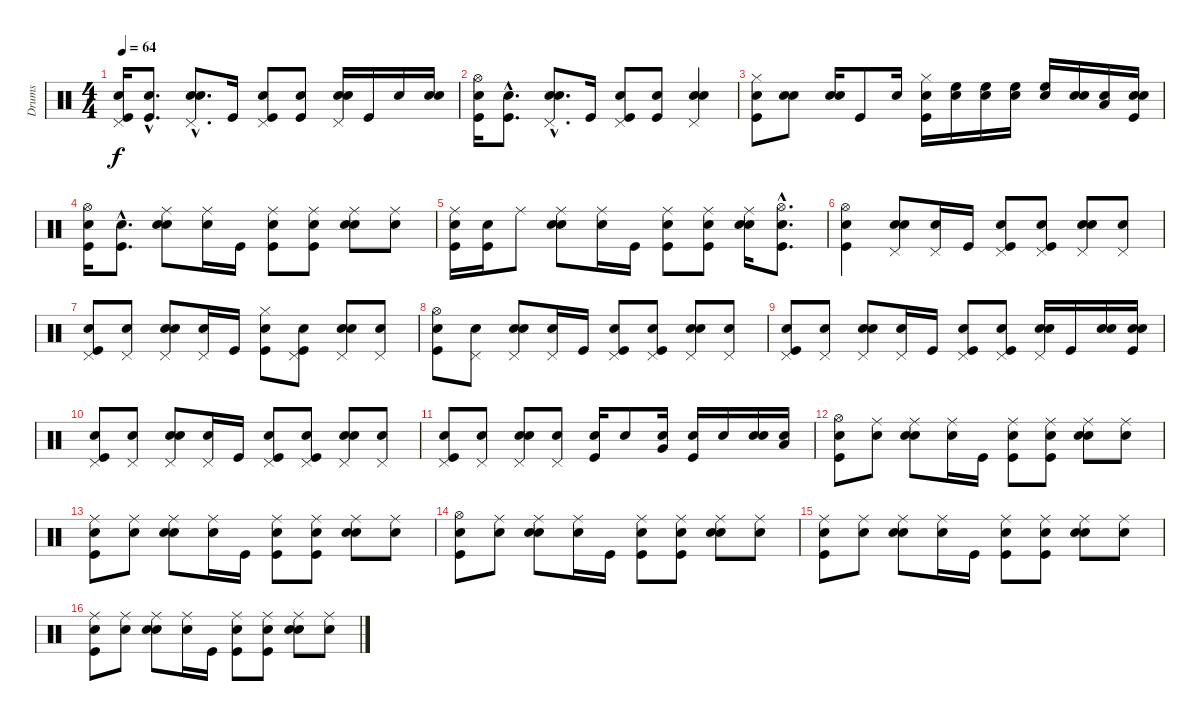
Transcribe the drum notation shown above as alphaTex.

\track ("Drums" "Drums") {instrument percussion}
\staff {score}
\articulation defaults
\ts (4 4)
\tempo 64
\clef neutral
\ks c
("Snare (hit)" "Kick (hit)" "Pedal Hi-Hat (hit)").16{dy f} ("Snare (hit)"{hac} "Kick (hit)"{hac}).8{d} ("Snare (hit)"{hac} "Pedal Hi-Hat (hit)"{hac} "Snare (hit) 2"{hac}).8{d} "Kick (hit)".16 ("Snare (hit)" "Kick (hit)" "Pedal Hi-Hat (hit)").8 ("Snare (hit)" "Kick (hit)").8 ("Snare (hit)" "Pedal Hi-Hat (hit)" "Snare (hit) 2").16 "Kick (hit)".16 "Electric Snare (hit)".16 ("Snare (hit)" "Electric Snare (hit)").16 |
("Snare (hit)" "Kick (hit)" "Hi-Hat (open)").16 ("Snare (hit)"{hac} "Kick (hit)"{hac}).8{d} ("Snare (hit)"{hac} "Pedal Hi-Hat (hit)"{hac} "Snare (hit) 2"{hac}).8{d} "Kick (hit)".16 ("Snare (hit)" "Kick (hit)" "Pedal Hi-Hat (hit)").8 ("Snare (hit)" "Kick (hit)").8 ("Snare (hit)" "Pedal Hi-Hat (hit)" "Snare (hit) 2").4 |
("Snare (hit)" "Kick (hit)" "Hi-Hat (closed)").8 ("Snare (hit)" "Snare (hit) 2").8 ("Snare (hit)" "Snare (hit) 2").16 "Kick (hit)".8 "Electric Snare (hit)".16 ("Snare (hit)" "Kick (hit)" "Hi-Hat (closed)").16 ("Snare (hit)" "High Floor Tom (hit)").16 ("Snare (hit)" "High Floor Tom (hit)").16 ("Snare (hit)" "High Floor Tom (hit)").16 ("Snare (hit)" "High Floor Tom (hit)").16 ("Snare (hit)" "Electric Snare (hit)").16 ("Snare (hit)" "Low Tom (hit)").16 ("Snare (hit)" "Snare (hit) 2" "Kick (hit)").16 |
("Snare (hit)" "Kick (hit)" "Hi-Hat (open)").16 ("Snare (hit)"{hac} "Kick (hit)"{hac}).8{d} ("Snare (hit)" "Ride (middle)" "Snare (hit) 2").8 ("Snare (hit)" "Ride (middle)").16 "Kick (hit)".16 ("Snare (hit)" "Kick (hit)" "Ride (middle)").8 ("Snare (hit)" "Kick (hit)" "Ride (middle)").8 ("Snare (hit)" "Ride (middle)" "Snare (hit) 2").8 ("Snare (hit)" "Ride (middle)").8 |
("Snare (hit)" "Kick (hit)" "Ride (middle)").16 ("Snare (hit)" "Kick (hit)").16 "Ride (middle)".8 ("Snare (hit)" "Ride (middle)" "Snare (hit) 2").8 ("Snare (hit)" "Ride (middle)").16 "Kick (hit)".16 ("Snare (hit)" "Kick (hit)" "Ride (middle)").8 ("Snare (hit)" "Kick (hit)" "Ride (middle)").8 ("Snare (hit)" "Ride (middle)" "Snare (hit) 2").16 ("Snare (hit)"{hac} "Kick (hit)"{hac} "Hi-Hat (open)"{hac}).8{d} |
("Snare (hit)" "Kick (hit)" "Hi-Hat (open)").4 ("Snare (hit)" "Pedal Hi-Hat (hit)" "Snare (hit) 2").8 ("Snare (hit)" "Pedal Hi-Hat (hit)").16 "Kick (hit)".16 ("Snare (hit)" "Kick (hit)" "Pedal Hi-Hat (hit)").8 ("Snare (hit)" "Kick (hit)" "Pedal Hi-Hat (hit)").8 ("Snare (hit)" "Pedal Hi-Hat (hit)" "Snare (hit) 2").8 ("Snare (hit)" "Pedal Hi-Hat (hit)").8 |
("Snare (hit)" "Kick (hit)" "Pedal Hi-Hat (hit)").8 ("Snare (hit)" "Pedal Hi-Hat (hit)").8 ("Snare (hit)" "Pedal Hi-Hat (hit)" "Snare (hit) 2").8 ("Snare (hit)" "Pedal Hi-Hat (hit)").16 "Kick (hit)".16 ("Snare (hit)" "Kick (hit)" "Hi-Hat (closed)").8 ("Snare (hit)" "Kick (hit)" "Pedal Hi-Hat (hit)").8 ("Snare (hit)" "Pedal Hi-Hat (hit)" "Snare (hit) 2").8 ("Snare (hit)" "Pedal Hi-Hat (hit)").8 |
("Snare (hit)" "Kick (hit)" "Hi-Hat (open)").8 ("Snare (hit)" "Pedal Hi-Hat (hit)").8 ("Snare (hit)" "Pedal Hi-Hat (hit)" "Snare (hit) 2").8 ("Snare (hit)" "Pedal Hi-Hat (hit)").16 "Kick (hit)".16 ("Snare (hit)" "Kick (hit)" "Pedal Hi-Hat (hit)").8 ("Snare (hit)" "Kick (hit)" "Pedal Hi-Hat (hit)").8 ("Snare (hit)" "Pedal Hi-Hat (hit)" "Snare (hit) 2").8 ("Snare (hit)" "Pedal Hi-Hat (hit)").8 |
("Snare (hit)" "Kick (hit)" "Pedal Hi-Hat (hit)").8 ("Snare (hit)" "Pedal Hi-Hat (hit)").8 ("Snare (hit)" "Pedal Hi-Hat (hit)" "Snare (hit) 2").8 ("Snare (hit)" "Pedal Hi-Hat (hit)").16 "Kick (hit)".16 ("Snare (hit)" "Kick (hit)" "Pedal Hi-Hat (hit)").8 ("Snare (hit)" "Kick (hit)" "Pedal Hi-Hat (hit)").8 ("Snare (hit)" "Pedal Hi-Hat (hit)" "Snare (hit) 2").16 "Kick (hit)".16 ("Snare (hit)" "Snare (hit) 2").16 ("Snare (hit)" "Kick (hit)" "Snare (hit) 2").16 |
("Snare (hit)" "Kick (hit)" "Pedal Hi-Hat (hit)").8 ("Snare (hit)" "Pedal Hi-Hat (hit)").8 ("Snare (hit)" "Pedal Hi-Hat (hit)" "Snare (hit) 2").8 ("Snare (hit)" "Pedal Hi-Hat (hit)").16 "Kick (hit)".16 ("Snare (hit)" "Kick (hit)" "Pedal Hi-Hat (hit)").8 ("Snare (hit)" "Kick (hit)" "Pedal Hi-Hat (hit)").8 ("Snare (hit)" "Pedal Hi-Hat (hit)" "Snare (hit) 2").8 ("Snare (hit)" "Pedal Hi-Hat (hit)").8 |
("Snare (hit)" "Kick (hit)" "Pedal Hi-Hat (hit)").8 ("Snare (hit)" "Pedal Hi-Hat (hit)").8 ("Snare (hit)" "Pedal Hi-Hat (hit)" "Snare (hit) 2").8 ("Snare (hit)" "Pedal Hi-Hat (hit)").8 ("Snare (hit)" "Kick (hit)").16 "Snare (hit) 2".8 ("Snare (hit)" "Very Low Tom (hit)").16 ("Snare (hit)" "Kick (hit)").16 "Electric Snare (hit)".16 ("Snare (hit)" "Electric Snare (hit)").16 ("Snare (hit)" "Low Floor Tom (hit)").16 |
("Snare (hit)" "Kick (hit)" "Hi-Hat (open)").8 ("Snare (hit)" "Ride (middle)").8 ("Snare (hit)" "Ride (middle)" "Snare (hit) 2").8 ("Snare (hit)" "Ride (middle)").16 "Kick (hit)".16 ("Snare (hit)" "Ride (middle)" "Kick (hit)").8 ("Snare (hit)" "Ride (middle)" "Kick (hit)").8 ("Snare (hit)" "Ride (middle)" "Snare (hit) 2").8 ("Snare (hit)" "Ride (middle)").8 |
("Snare (hit)" "Ride (middle)" "Kick (hit)").8 ("Snare (hit)" "Ride (middle)").8 ("Snare (hit)" "Ride (middle)" "Snare (hit) 2").8 ("Snare (hit)" "Ride (middle)").16 "Kick (hit)".16 ("Snare (hit)" "Ride (middle)" "Kick (hit)").8 ("Snare (hit)" "Ride (middle)" "Kick (hit)").8 ("Snare (hit)" "Ride (middle)" "Snare (hit) 2").8 ("Snare (hit)" "Ride (middle)").8 |
("Snare (hit)" "Kick (hit)" "Hi-Hat (open)").8 ("Snare (hit)" "Ride (middle)").8 ("Snare (hit)" "Ride (middle)" "Snare (hit) 2").8 ("Snare (hit)" "Ride (middle)").16 "Kick (hit)".16 ("Snare (hit)" "Ride (middle)" "Kick (hit)").8 ("Snare (hit)" "Ride (middle)" "Kick (hit)").8 ("Snare (hit)" "Ride (middle)" "Snare (hit) 2").8 ("Snare (hit)" "Ride (middle)").8 |
("Snare (hit)" "Kick (hit)" "Ride (middle)").8 ("Snare (hit)" "Ride (middle)").8 ("Snare (hit)" "Ride (middle)" "Snare (hit) 2").8 ("Snare (hit)" "Ride (middle)").16 "Kick (hit)".16 ("Snare (hit)" "Ride (middle)" "Kick (hit)").8 ("Snare (hit)" "Ride (middle)" "Kick (hit)").8 ("Snare (hit)" "Ride (middle)" "Snare (hit) 2").8 ("Snare (hit)" "Ride (middle)").8 |
("Snare (hit)" "Ride (middle)" "Kick (hit)").8 ("Snare (hit)" "Ride (middle)").8 ("Snare (hit)" "Ride (middle)" "Snare (hit) 2").8 ("Snare (hit)" "Ride (middle)").16 "Kick (hit)".16 ("Snare (hit)" "Ride (middle)" "Kick (hit)").8 ("Snare (hit)" "Ride (middle)" "Kick (hit)").8 ("Snare (hit)" "Ride (middle)" "Snare (hit) 2").8 ("Snare (hit)" "Ride (middle)").8
